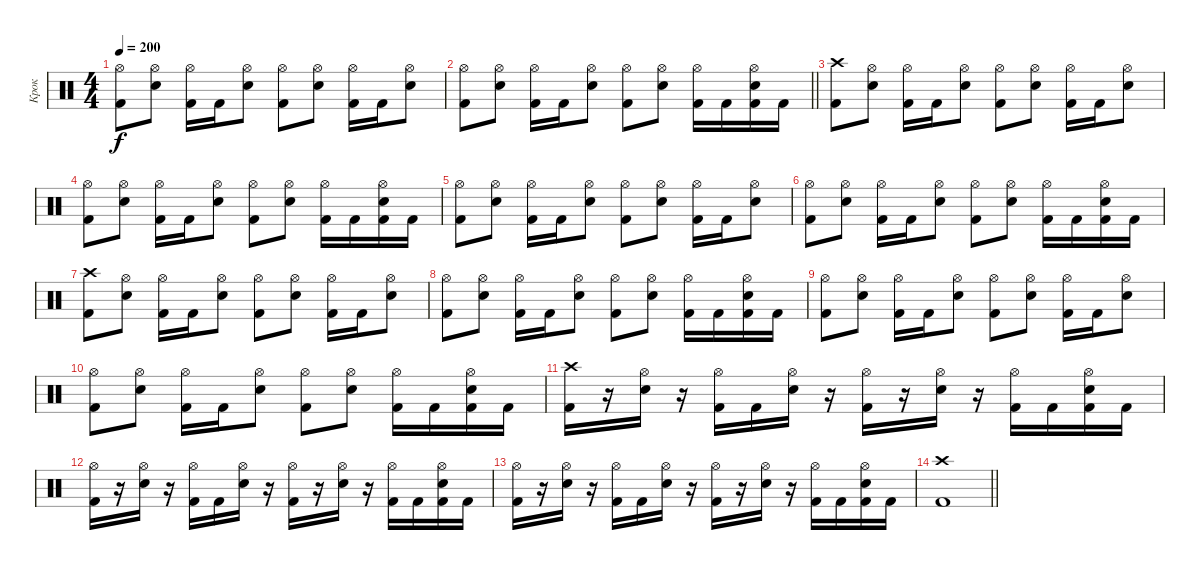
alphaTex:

\track ("Крок" "Крок") {instrument percussion}
\staff {score}
\articulation defaults
\ts (4 4)
\tempo 200
\clef neutral
\ks c
("Hi-Hat (open)" "Kick (hit) 2").8{dy f} ("Hi-Hat (open)" "Electric Snare (hit)").8 ("Hi-Hat (open)" "Kick (hit) 2").16 "Kick (hit) 2".16 ("Hi-Hat (open)" "Electric Snare (hit)").8 ("Hi-Hat (open)" "Kick (hit) 2").8 ("Hi-Hat (open)" "Electric Snare (hit)").8 ("Hi-Hat (open)" "Kick (hit) 2").16 "Kick (hit) 2".16 ("Hi-Hat (open)" "Electric Snare (hit)").8 |
\barLineRight lightlight
("Hi-Hat (open)" "Kick (hit) 2").8 ("Hi-Hat (open)" "Electric Snare (hit)").8 ("Hi-Hat (open)" "Kick (hit) 2").16 "Kick (hit) 2".16 ("Hi-Hat (open)" "Electric Snare (hit)").8 ("Hi-Hat (open)" "Kick (hit) 2").8 ("Hi-Hat (open)" "Electric Snare (hit)").8 ("Hi-Hat (open)" "Kick (hit) 2").16 "Kick (hit) 2".16 ("Hi-Hat (open)" "Kick (hit) 2" "Electric Snare (hit)").16 "Kick (hit) 2".16 |
("Crash high (hit)" "Kick (hit) 2").8 ("Hi-Hat (open)" "Electric Snare (hit)").8 ("Hi-Hat (open)" "Kick (hit) 2").16 "Kick (hit) 2".16 ("Hi-Hat (open)" "Electric Snare (hit)").8 ("Hi-Hat (open)" "Kick (hit) 2").8 ("Hi-Hat (open)" "Electric Snare (hit)").8 ("Hi-Hat (open)" "Kick (hit) 2").16 "Kick (hit) 2".16 ("Hi-Hat (open)" "Electric Snare (hit)").8 |
("Hi-Hat (open)" "Kick (hit) 2").8 ("Hi-Hat (open)" "Electric Snare (hit)").8 ("Hi-Hat (open)" "Kick (hit) 2").16 "Kick (hit) 2".16 ("Hi-Hat (open)" "Electric Snare (hit)").8 ("Hi-Hat (open)" "Kick (hit) 2").8 ("Hi-Hat (open)" "Electric Snare (hit)").8 ("Hi-Hat (open)" "Kick (hit) 2").16 "Kick (hit) 2".16 ("Hi-Hat (open)" "Kick (hit) 2" "Electric Snare (hit)").16 "Kick (hit) 2".16 |
("Hi-Hat (open)" "Kick (hit) 2").8 ("Hi-Hat (open)" "Electric Snare (hit)").8 ("Hi-Hat (open)" "Kick (hit) 2").16 "Kick (hit) 2".16 ("Hi-Hat (open)" "Electric Snare (hit)").8 ("Hi-Hat (open)" "Kick (hit) 2").8 ("Hi-Hat (open)" "Electric Snare (hit)").8 ("Hi-Hat (open)" "Kick (hit) 2").16 "Kick (hit) 2".16 ("Hi-Hat (open)" "Electric Snare (hit)").8 |
("Hi-Hat (open)" "Kick (hit) 2").8 ("Hi-Hat (open)" "Electric Snare (hit)").8 ("Hi-Hat (open)" "Kick (hit) 2").16 "Kick (hit) 2".16 ("Hi-Hat (open)" "Electric Snare (hit)").8 ("Hi-Hat (open)" "Kick (hit) 2").8 ("Hi-Hat (open)" "Electric Snare (hit)").8 ("Hi-Hat (open)" "Kick (hit) 2").16 "Kick (hit) 2".16 ("Hi-Hat (open)" "Kick (hit) 2" "Electric Snare (hit)").16 "Kick (hit) 2".16 |
("Crash high (hit)" "Kick (hit) 2").8 ("Hi-Hat (open)" "Electric Snare (hit)").8 ("Hi-Hat (open)" "Kick (hit) 2").16 "Kick (hit) 2".16 ("Hi-Hat (open)" "Electric Snare (hit)").8 ("Hi-Hat (open)" "Kick (hit) 2").8 ("Hi-Hat (open)" "Electric Snare (hit)").8 ("Hi-Hat (open)" "Kick (hit) 2").16 "Kick (hit) 2".16 ("Hi-Hat (open)" "Electric Snare (hit)").8 |
("Hi-Hat (open)" "Kick (hit) 2").8 ("Hi-Hat (open)" "Electric Snare (hit)").8 ("Hi-Hat (open)" "Kick (hit) 2").16 "Kick (hit) 2".16 ("Hi-Hat (open)" "Electric Snare (hit)").8 ("Hi-Hat (open)" "Kick (hit) 2").8 ("Hi-Hat (open)" "Electric Snare (hit)").8 ("Hi-Hat (open)" "Kick (hit) 2").16 "Kick (hit) 2".16 ("Hi-Hat (open)" "Kick (hit) 2" "Electric Snare (hit)").16 "Kick (hit) 2".16 |
("Hi-Hat (open)" "Kick (hit) 2").8 ("Hi-Hat (open)" "Electric Snare (hit)").8 ("Hi-Hat (open)" "Kick (hit) 2").16 "Kick (hit) 2".16 ("Hi-Hat (open)" "Electric Snare (hit)").8 ("Hi-Hat (open)" "Kick (hit) 2").8 ("Hi-Hat (open)" "Electric Snare (hit)").8 ("Hi-Hat (open)" "Kick (hit) 2").16 "Kick (hit) 2".16 ("Hi-Hat (open)" "Electric Snare (hit)").8 |
("Hi-Hat (open)" "Kick (hit) 2").8 ("Hi-Hat (open)" "Electric Snare (hit)").8 ("Hi-Hat (open)" "Kick (hit) 2").16 "Kick (hit) 2".16 ("Hi-Hat (open)" "Electric Snare (hit)").8 ("Hi-Hat (open)" "Kick (hit) 2").8 ("Hi-Hat (open)" "Electric Snare (hit)").8 ("Hi-Hat (open)" "Kick (hit) 2").16 "Kick (hit) 2".16 ("Hi-Hat (open)" "Kick (hit) 2" "Electric Snare (hit)").16 "Kick (hit) 2".16 |
("Kick (hit) 2" "Crash high (hit)").16 r.16 ("Electric Snare (hit)" "Hi-Hat (open)").16 r.16 ("Kick (hit) 2" "Hi-Hat (open)").16 "Kick (hit) 2".16 ("Electric Snare (hit)" "Hi-Hat (open)").16 r.16 ("Kick (hit) 2" "Hi-Hat (open)").16 r.16 ("Electric Snare (hit)" "Hi-Hat (open)").16 r.16 ("Kick (hit) 2" "Hi-Hat (open)").16 "Kick (hit) 2".16 ("Kick (hit) 2" "Electric Snare (hit)" "Hi-Hat (open)").16 "Kick (hit) 2".16 |
("Kick (hit) 2" "Hi-Hat (open)").16 r.16 ("Electric Snare (hit)" "Hi-Hat (open)").16 r.16 ("Kick (hit) 2" "Hi-Hat (open)").16 "Kick (hit) 2".16 ("Electric Snare (hit)" "Hi-Hat (open)").16 r.16 ("Kick (hit) 2" "Hi-Hat (open)").16 r.16 ("Electric Snare (hit)" "Hi-Hat (open)").16 r.16 ("Kick (hit) 2" "Hi-Hat (open)").16 "Kick (hit) 2".16 ("Kick (hit) 2" "Electric Snare (hit)" "Hi-Hat (open)").16 "Kick (hit) 2".16 |
("Kick (hit) 2" "Hi-Hat (open)").16 r.16 ("Electric Snare (hit)" "Hi-Hat (open)").16 r.16 ("Kick (hit) 2" "Hi-Hat (open)").16 "Kick (hit) 2".16 ("Electric Snare (hit)" "Hi-Hat (open)").16 r.16 ("Kick (hit) 2" "Hi-Hat (open)").16 r.16 ("Electric Snare (hit)" "Hi-Hat (open)").16 r.16 ("Kick (hit) 2" "Hi-Hat (open)").16 "Kick (hit) 2".16 ("Kick (hit) 2" "Electric Snare (hit)" "Hi-Hat (open)").16 "Kick (hit) 2".16 |
\barLineRight lightlight
("Kick (hit) 2" "Crash high (hit)").1
